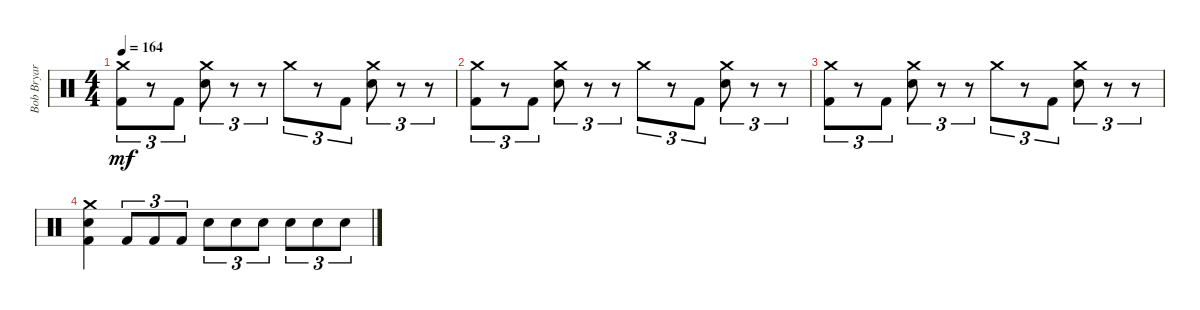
\track ("Bob Bryar" "Bob Bryar") {instrument percussion}
\staff {score}
\articulation defaults
\ts (4 4)
\tempo 164
\clef neutral
\ks c
("Crash medium (hit)" "Kick (hit) 2").8{tu (3 2) dy mf volume 0} r.8{tu (3 2)} "Kick (hit) 2".8{tu (3 2)} ("Crash medium (hit)" "Electric Snare (hit)").8{tu (3 2)} r.8{tu (3 2)} r.8{tu (3 2)} "Crash medium (hit)".8{tu (3 2)} r.8{tu (3 2)} "Kick (hit) 2".8{tu (3 2)} ("Crash medium (hit)" "Electric Snare (hit)").8{tu (3 2)} r.8{tu (3 2)} r.8{tu (3 2)} |
("Crash medium (hit)" "Kick (hit) 2").8{tu (3 2)} r.8{tu (3 2)} "Kick (hit) 2".8{tu (3 2)} ("Crash medium (hit)" "Electric Snare (hit)").8{tu (3 2)} r.8{tu (3 2)} r.8{tu (3 2)} "Crash medium (hit)".8{tu (3 2)} r.8{tu (3 2)} "Kick (hit) 2".8{tu (3 2)} ("Crash medium (hit)" "Electric Snare (hit)").8{tu (3 2)} r.8{tu (3 2)} r.8{tu (3 2)} |
("Crash medium (hit)" "Kick (hit) 2").8{tu (3 2)} r.8{tu (3 2)} "Kick (hit) 2".8{tu (3 2)} ("Crash medium (hit)" "Electric Snare (hit)").8{tu (3 2)} r.8{tu (3 2)} r.8{tu (3 2)} "Crash medium (hit)".8{tu (3 2)} r.8{tu (3 2)} "Kick (hit) 2".8{tu (3 2)} ("Crash medium (hit)" "Electric Snare (hit)").8{tu (3 2)} r.8{tu (3 2)} r.8{tu (3 2)} |
("Crash medium (hit)" "Electric Snare (hit)" "Kick (hit) 2").4 "Kick (hit) 2".8{tu (3 2)} "Kick (hit) 2".8{tu (3 2)} "Kick (hit) 2".8{tu (3 2)} "Electric Snare (hit)".8{tu (3 2)} "Electric Snare (hit)".8{tu (3 2)} "Electric Snare (hit)".8{tu (3 2)} "Electric Snare (hit)".8{tu (3 2)} "Electric Snare (hit)".8{tu (3 2)} "Electric Snare (hit)".8{tu (3 2)}
